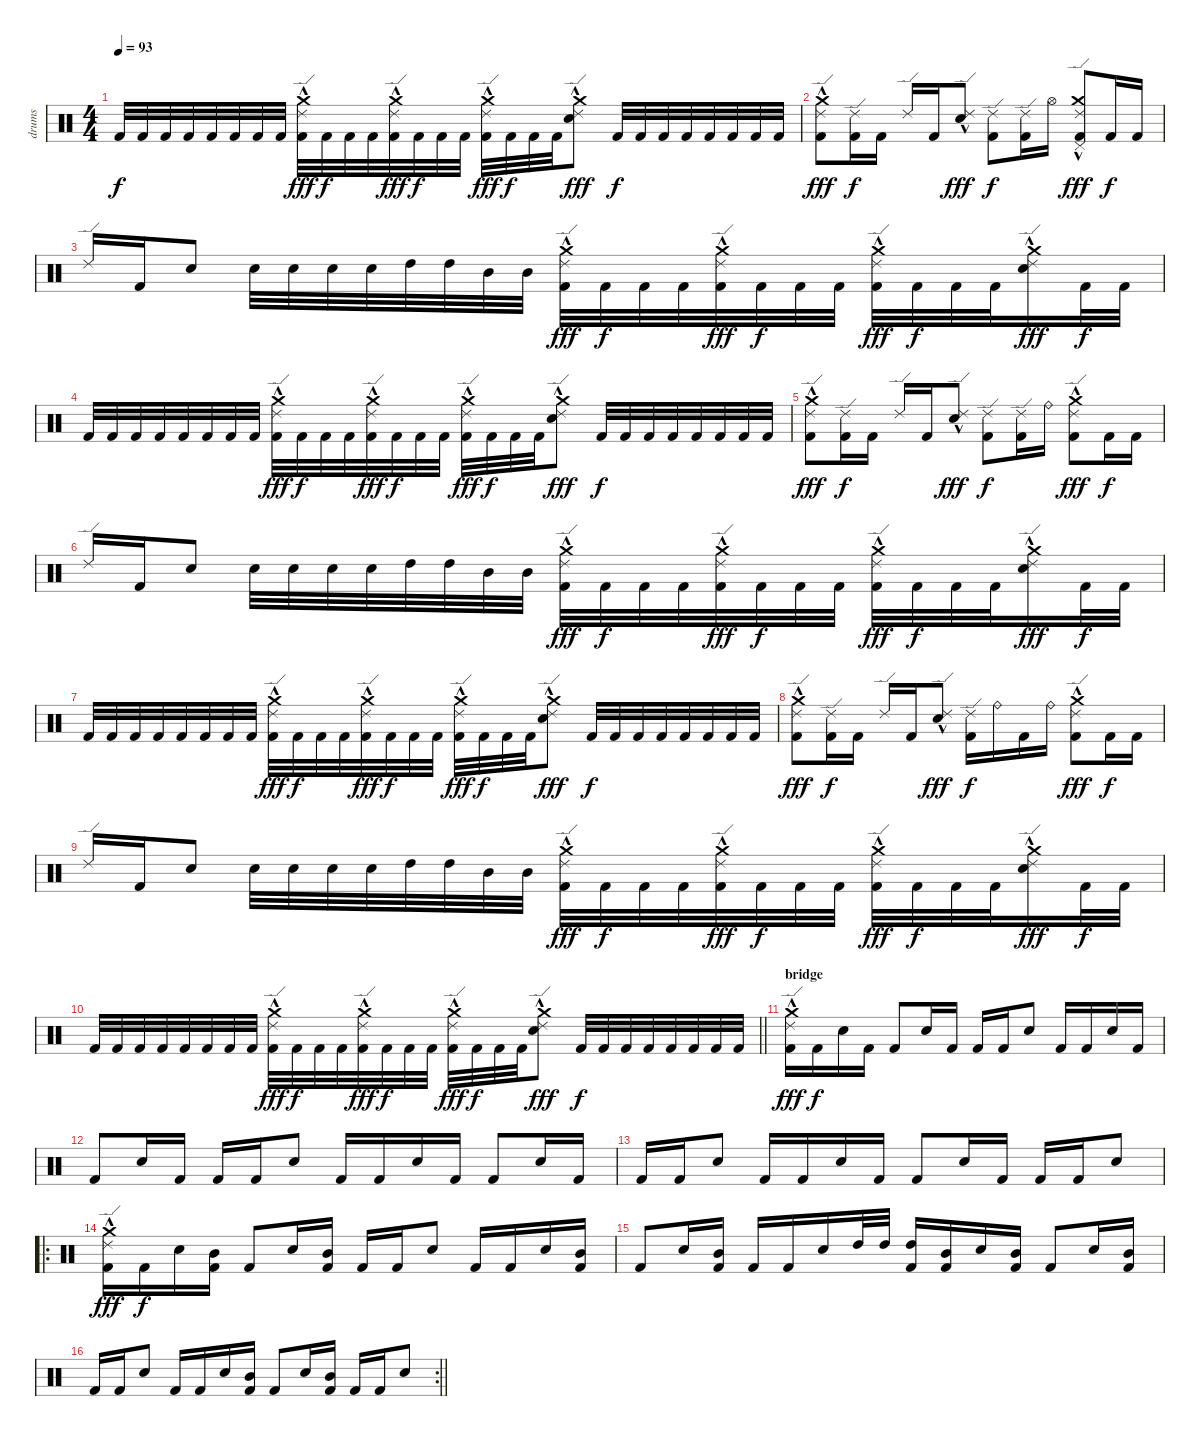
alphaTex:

\track ("drums" "drums") {instrument percussion}
\staff {score}
\articulation defaults
\ts (4 4)
\tempo 93
\clef neutral
\ks c "Kick (hit) 2".32{dy f} "Kick (hit) 2".32 "Kick (hit) 2".32 "Kick (hit) 2".32 "Kick (hit) 2".32 "Kick (hit) 2".32 "Kick (hit) 2".32 "Kick (hit) 2".32
("Kick (hit) 2" "Ride (edge) 2"{hac} "Crash medium (hit)").32{dy fff} "Kick (hit) 2".32{dy f} "Kick (hit) 2".32 "Kick (hit) 2".32 ("Kick (hit) 2" "Ride (edge) 2"{hac} "Crash medium (hit)").32{dy fff} "Kick (hit) 2".32{dy f} "Kick (hit) 2".32 "Kick (hit) 2".32 ("Kick (hit) 2" "Ride (edge) 2"{hac} "Crash medium (hit)").32{dy fff} "Kick (hit) 2".32{dy f} "Kick (hit) 2".32 "Kick (hit) 2".32 ("Electric Snare (hit)" "Ride (edge) 2"{hac} "Crash medium (hit)").8{dy fff} "Kick (hit) 2".32{dy f} "Kick (hit) 2".32 "Kick (hit) 2".32 "Kick (hit) 2".32 "Kick (hit) 2".32 "Kick (hit) 2".32 "Kick (hit) 2".32 "Kick (hit) 2".32 |
("Kick (hit) 2" "Ride (edge) 2"{hac} "Crash medium (hit)").8{dy fff} ("Kick (hit) 2" "Ride (edge) 2").16{dy f} "Kick (hit) 2".16 "Ride (edge) 2".16 "Kick (hit) 2".16 ("Electric Snare (hit)" "Ride (edge) 2"{hac}).8{dy fff} ("Kick (hit) 2" "Ride (edge) 2").8{dy f} ("Kick (hit) 2" "Ride (edge) 2").16 "Hi-Hat (open)".16 ("Kick (hit) 2" "Ride (edge) 2"{hac} "Crash medium (hit)" "Pedal Hi-Hat (hit)").8{dy fff} "Kick (hit) 2".16{dy f} "Kick (hit) 2".16 |
"Ride (edge) 2".16 "Kick (hit) 2".16 "Electric Snare (hit)".8 "Electric Snare (hit)".32 "Electric Snare (hit)".32 "Electric Snare (hit)".32 "Electric Snare (hit)".32 "High Tom (hit)".32 "High Tom (hit)".32 "Mid Tom (hit)".32 "Mid Tom (hit)".32 ("Kick (hit) 2" "Ride (edge) 2"{hac} "Crash medium (hit)").32{dy fff} "Kick (hit) 2".32{dy f} "Kick (hit) 2".32 "Kick (hit) 2".32 ("Kick (hit) 2" "Ride (edge) 2"{hac} "Crash medium (hit)").32{dy fff} "Kick (hit) 2".32{dy f} "Kick (hit) 2".32 "Kick (hit) 2".32 ("Kick (hit) 2" "Ride (edge) 2"{hac} "Crash medium (hit)").32{dy fff} "Kick (hit) 2".32{dy f} "Kick (hit) 2".32 "Kick (hit) 2".32 ("Electric Snare (hit)" "Ride (edge) 2"{hac} "Crash medium (hit)").16{dy fff} "Kick (hit) 2".32{dy f} "Kick (hit) 2".32 |
"Kick (hit) 2".32 "Kick (hit) 2".32 "Kick (hit) 2".32 "Kick (hit) 2".32 "Kick (hit) 2".32 "Kick (hit) 2".32 "Kick (hit) 2".32 "Kick (hit) 2".32 ("Kick (hit) 2" "Ride (edge) 2"{hac} "Crash medium (hit)").32{dy fff} "Kick (hit) 2".32{dy f} "Kick (hit) 2".32 "Kick (hit) 2".32 ("Kick (hit) 2" "Ride (edge) 2"{hac} "Crash medium (hit)").32{dy fff} "Kick (hit) 2".32{dy f} "Kick (hit) 2".32 "Kick (hit) 2".32 ("Kick (hit) 2" "Ride (edge) 2"{hac} "Crash medium (hit)").32{dy fff} "Kick (hit) 2".32{dy f} "Kick (hit) 2".32 "Kick (hit) 2".32 ("Electric Snare (hit)" "Ride (edge) 2"{hac} "Crash medium (hit)").8{dy fff} "Kick (hit) 2".32{dy f} "Kick (hit) 2".32 "Kick (hit) 2".32 "Kick (hit) 2".32 "Kick (hit) 2".32 "Kick (hit) 2".32 "Kick (hit) 2".32 "Kick (hit) 2".32 |
("Kick (hit) 2" "Ride (edge) 2"{hac} "Crash medium (hit)").8{dy fff} ("Kick (hit) 2" "Ride (edge) 2").16{dy f} "Kick (hit) 2".16 "Ride (edge) 2".16 "Kick (hit) 2".16 ("Electric Snare (hit)" "Ride (edge) 2"{hac}).8{dy fff} ("Kick (hit) 2" "Ride (edge) 2").8{dy f} ("Kick (hit) 2" "Ride (edge) 2").16 "Ride (bell)".16 ("Kick (hit) 2" "Ride (edge) 2"{hac} "Crash medium (hit)").8{dy fff} "Kick (hit) 2".16{dy f} "Kick (hit) 2".16 |
"Ride (edge) 2".16 "Kick (hit) 2".16 "Electric Snare (hit)".8 "Electric Snare (hit)".32 "Electric Snare (hit)".32 "Electric Snare (hit)".32 "Electric Snare (hit)".32 "High Tom (hit)".32 "High Tom (hit)".32 "Mid Tom (hit)".32 "Mid Tom (hit)".32 ("Kick (hit) 2" "Ride (edge) 2"{hac} "Crash medium (hit)").32{dy fff} "Kick (hit) 2".32{dy f} "Kick (hit) 2".32 "Kick (hit) 2".32 ("Kick (hit) 2" "Ride (edge) 2"{hac} "Crash medium (hit)").32{dy fff} "Kick (hit) 2".32{dy f} "Kick (hit) 2".32 "Kick (hit) 2".32 ("Kick (hit) 2" "Ride (edge) 2"{hac} "Crash medium (hit)").32{dy fff} "Kick (hit) 2".32{dy f} "Kick (hit) 2".32 "Kick (hit) 2".32 ("Electric Snare (hit)" "Ride (edge) 2"{hac} "Crash medium (hit)").16{dy fff} "Kick (hit) 2".32{dy f} "Kick (hit) 2".32 |
"Kick (hit) 2".32 "Kick (hit) 2".32 "Kick (hit) 2".32 "Kick (hit) 2".32 "Kick (hit) 2".32 "Kick (hit) 2".32 "Kick (hit) 2".32 "Kick (hit) 2".32 ("Kick (hit) 2" "Ride (edge) 2"{hac} "Crash medium (hit)").32{dy fff} "Kick (hit) 2".32{dy f} "Kick (hit) 2".32 "Kick (hit) 2".32 ("Kick (hit) 2" "Ride (edge) 2"{hac} "Crash medium (hit)").32{dy fff} "Kick (hit) 2".32{dy f} "Kick (hit) 2".32 "Kick (hit) 2".32 ("Kick (hit) 2" "Ride (edge) 2"{hac} "Crash medium (hit)").32{dy fff} "Kick (hit) 2".32{dy f} "Kick (hit) 2".32 "Kick (hit) 2".32 ("Electric Snare (hit)" "Ride (edge) 2"{hac} "Crash medium (hit)").8{dy fff} "Kick (hit) 2".32{dy f} "Kick (hit) 2".32 "Kick (hit) 2".32 "Kick (hit) 2".32 "Kick (hit) 2".32 "Kick (hit) 2".32 "Kick (hit) 2".32 "Kick (hit) 2".32 |
("Kick (hit) 2" "Ride (edge) 2"{hac} "Crash medium (hit)").8{dy fff} ("Kick (hit) 2" "Ride (edge) 2").16{dy f} "Kick (hit) 2".16 "Ride (edge) 2".16 "Kick (hit) 2".16 ("Electric Snare (hit)" "Ride (edge) 2"{hac}).8{dy fff} ("Kick (hit) 2" "Ride (edge) 2").16{dy f} "Ride (bell)".16 "Kick (hit) 2".16 "Ride (bell)".16 ("Kick (hit) 2" "Ride (edge) 2"{hac} "Crash medium (hit)").8{dy fff} "Kick (hit) 2".16{dy f} "Kick (hit) 2".16 |
"Ride (edge) 2".16 "Kick (hit) 2".16 "Electric Snare (hit)".8 "Electric Snare (hit)".32 "Electric Snare (hit)".32 "Electric Snare (hit)".32 "Electric Snare (hit)".32 "High Tom (hit)".32 "High Tom (hit)".32 "Mid Tom (hit)".32 "Mid Tom (hit)".32 ("Kick (hit) 2" "Ride (edge) 2"{hac} "Crash medium (hit)").32{dy fff} "Kick (hit) 2".32{dy f} "Kick (hit) 2".32 "Kick (hit) 2".32 ("Kick (hit) 2" "Ride (edge) 2"{hac} "Crash medium (hit)").32{dy fff} "Kick (hit) 2".32{dy f} "Kick (hit) 2".32 "Kick (hit) 2".32 ("Kick (hit) 2" "Ride (edge) 2"{hac} "Crash medium (hit)").32{dy fff} "Kick (hit) 2".32{dy f} "Kick (hit) 2".32 "Kick (hit) 2".32 ("Electric Snare (hit)" "Ride (edge) 2"{hac} "Crash medium (hit)").16{dy fff} "Kick (hit) 2".32{dy f} "Kick (hit) 2".32 |
\barLineRight lightlight "Kick (hit) 2".32 "Kick (hit) 2".32 "Kick (hit) 2".32 "Kick (hit) 2".32 "Kick (hit) 2".32 "Kick (hit) 2".32 "Kick (hit) 2".32 "Kick (hit) 2".32
("Kick (hit) 2" "Ride (edge) 2"{hac} "Crash medium (hit)").32{dy fff} "Kick (hit) 2".32{dy f} "Kick (hit) 2".32 "Kick (hit) 2".32 ("Kick (hit) 2" "Ride (edge) 2"{hac} "Crash medium (hit)").32{dy fff} "Kick (hit) 2".32{dy f} "Kick (hit) 2".32 "Kick (hit) 2".32 ("Kick (hit) 2" "Ride (edge) 2"{hac} "Crash medium (hit)").32{dy fff} "Kick (hit) 2".32{dy f} "Kick (hit) 2".32 "Kick (hit) 2".32 ("Electric Snare (hit)" "Ride (edge) 2"{hac} "Crash medium (hit)").8{dy fff} "Kick (hit) 2".32{dy f} "Kick (hit) 2".32 "Kick (hit) 2".32 "Kick (hit) 2".32 "Kick (hit) 2".32 "Kick (hit) 2".32 "Kick (hit) 2".32 "Kick (hit) 2".32 |
\section ("" "bridge")
("Kick (hit) 2" "Ride (edge) 2"{hac} "Crash medium (hit)").16{dy fff} "Kick (hit) 2".16{dy f} "Electric Snare (hit)".16 "Kick (hit) 2".16 "Kick (hit) 2".8 "Electric Snare (hit)".16 "Kick (hit) 2".16 "Kick (hit) 2".16 "Kick (hit) 2".16 "Electric Snare (hit)".8 "Kick (hit) 2".16 "Kick (hit) 2".16 "Electric Snare (hit)".16 "Kick (hit) 2".16 |
"Kick (hit) 2".8 "Electric Snare (hit)".16 "Kick (hit) 2".16 "Kick (hit) 2".16 "Kick (hit) 2".16 "Electric Snare (hit)".8 "Kick (hit) 2".16 "Kick (hit) 2".16 "Electric Snare (hit)".16 "Kick (hit) 2".16 "Kick (hit) 2".8 "Electric Snare (hit)".16 "Kick (hit) 2".16 |
"Kick (hit) 2".16 "Kick (hit) 2".16 "Electric Snare (hit)".8 "Kick (hit) 2".16 "Kick (hit) 2".16 "Electric Snare (hit)".16 "Kick (hit) 2".16 "Kick (hit) 2".8 "Electric Snare (hit)".16 "Kick (hit) 2".16 "Kick (hit) 2".16 "Kick (hit) 2".16 "Electric Snare (hit)".8 |
\ro
("Kick (hit) 2" "Ride (edge) 2"{hac} "Crash medium (hit)").16{dy fff} "Kick (hit) 2".16{dy f} "Electric Snare (hit)".16 ("Kick (hit) 2" "Mid Tom (hit)").16 "Kick (hit) 2".8 "Electric Snare (hit)".16 ("Kick (hit) 2" "Mid Tom (hit)").16 "Kick (hit) 2".16 "Kick (hit) 2".16 "Electric Snare (hit)".8 "Kick (hit) 2".16 "Kick (hit) 2".16 "Electric Snare (hit)".16 ("Kick (hit) 2" "Mid Tom (hit)").16 |
"Kick (hit) 2".8 "Electric Snare (hit)".16 ("Kick (hit) 2" "Mid Tom (hit)").16 "Kick (hit) 2".16 "Kick (hit) 2".16 "Electric Snare (hit)".16 "High Tom (hit)".32 "High Tom (hit)".32 ("Kick (hit) 2" "High Tom (hit)").16 ("Kick (hit) 2" "Mid Tom (hit)").16 "Electric Snare (hit)".16 ("Kick (hit) 2" "Mid Tom (hit)").16 "Kick (hit) 2".8 "Electric Snare (hit)".16 ("Kick (hit) 2" "Mid Tom (hit)").16 |
\rc 2
\barLineRight lightlight "Kick (hit) 2".16 "Kick (hit) 2".16 "Electric Snare (hit)".8 "Kick (hit) 2".16 "Kick (hit) 2".16 "Electric Snare (hit)".16
("Kick (hit) 2" "Mid Tom (hit)").16 "Kick (hit) 2".8 "Electric Snare (hit)".16 ("Kick (hit) 2" "Mid Tom (hit)").16 "Kick (hit) 2".16 "Kick (hit) 2".16 "Electric Snare (hit)".8
